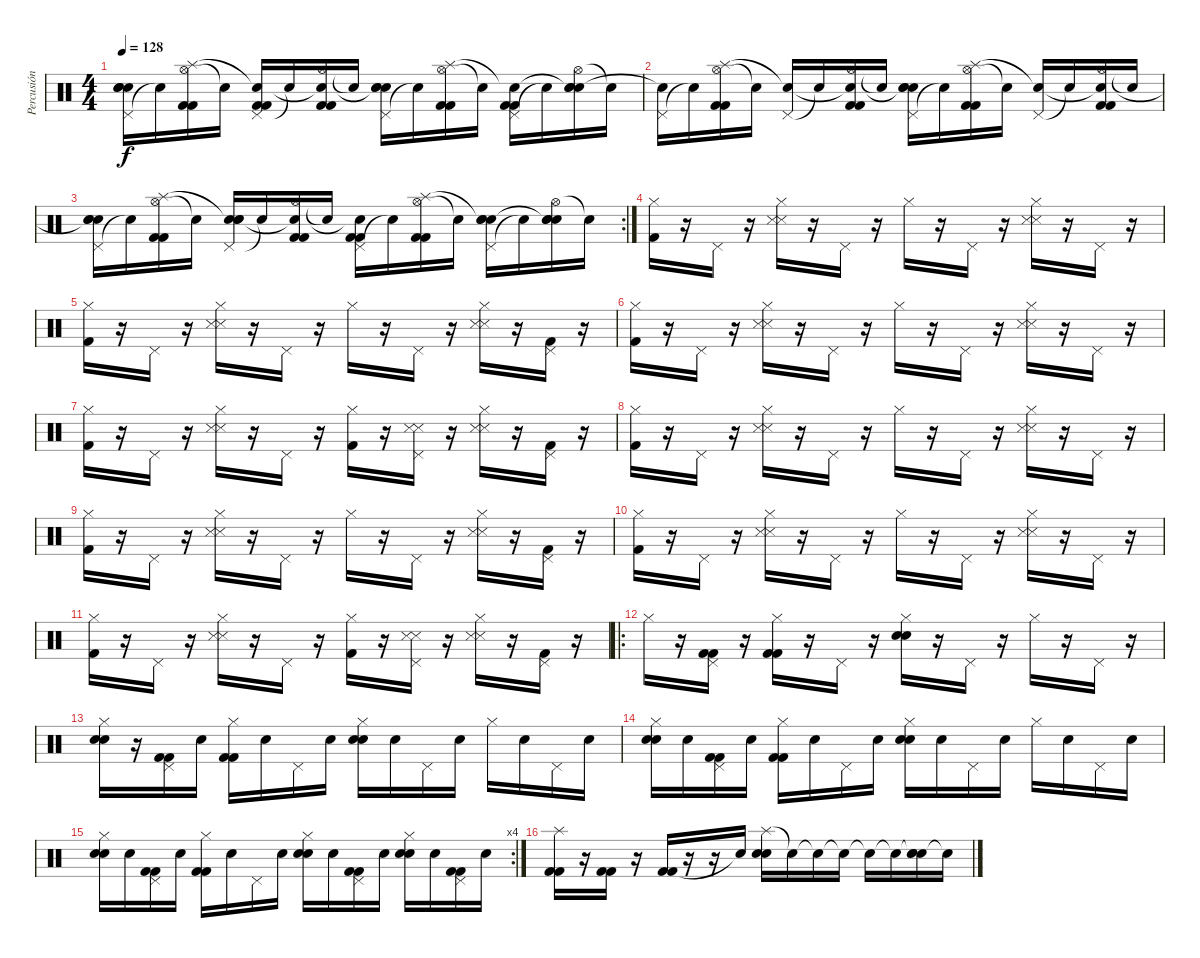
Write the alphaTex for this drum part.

\track ("Percusión" "Percusión") {instrument percussion}
\staff {score}
\articulation defaults
\ts (4 4)
\tempo 128
\clef neutral
\ks c
("Pedal Hi-Hat (hit)" "Snare (hit)"{t} "Electric Snare (hit)" "Electric Snare (hit)").16{dy f} "Snare (hit)"{t}.16 ("Hi-Hat (open)" "Splash (hit)" "Kick (hit) 2" "Kick (hit) 2").16 "Snare (hit)"{t}.16 ("Pedal Hi-Hat (hit)" "Snare (hit)"{t} "Kick (hit) 2" "Kick (hit) 2").16 "Snare (hit)"{t}.16 ("Hi-Hat (open)" "Snare (hit)"{t} "Kick (hit) 2" "Kick (hit) 2").16 "Snare (hit)"{t}.16 ("Pedal Hi-Hat (hit)" "Snare (hit)"{t} "Electric Snare (hit)" "Electric Snare (hit)").16 "Snare (hit)"{t}.16 ("Hi-Hat (open)" "Splash (hit)" "Kick (hit) 2" "Kick (hit) 2").16 "Snare (hit)"{t}.16 ("Pedal Hi-Hat (hit)" "Snare (hit)"{t} "Kick (hit) 2" "Kick (hit) 2").16 "Snare (hit)"{t}.16 ("Hi-Hat (open)" "Snare (hit)"{t} "Electric Snare (hit)" "Electric Snare (hit)").16 "Snare (hit)"{t}.16 |
("Pedal Hi-Hat (hit)" "Snare (hit)"{t}).16 "Snare (hit)"{t}.16 ("Hi-Hat (open)" "Splash (hit)" "Kick (hit) 2" "Kick (hit) 2").16 "Snare (hit)"{t}.16 ("Pedal Hi-Hat (hit)" "Snare (hit)"{t}).16 "Snare (hit)"{t}.16 ("Hi-Hat (open)" "Snare (hit)"{t} "Kick (hit) 2" "Kick (hit) 2").16 "Snare (hit)"{t}.16 ("Pedal Hi-Hat (hit)" "Snare (hit)"{t} "Electric Snare (hit)" "Electric Snare (hit)").16 "Snare (hit)"{t}.16 ("Hi-Hat (open)" "Splash (hit)" "Kick (hit) 2" "Kick (hit) 2").16 "Snare (hit)"{t}.16 ("Pedal Hi-Hat (hit)" "Snare (hit)"{t}).16 "Snare (hit)"{t}.16 ("Hi-Hat (open)" "Snare (hit)"{t} "Kick (hit) 2" "Kick (hit) 2").16 "Snare (hit)"{t}.16 |
\rc 2
("Pedal Hi-Hat (hit)" "Electric Snare (hit)"{t} "Electric Snare (hit)" "Electric Snare (hit)").16 "Snare (hit)"{t}.16 ("Hi-Hat (open)" "Splash (hit)" "Kick (hit) 2" "Kick (hit) 2").16 "Snare (hit)"{t}.16 ("Pedal Hi-Hat (hit)" "Snare (hit)"{t} "Electric Snare (hit)" "Electric Snare (hit)").16 "Snare (hit)"{t}.16 ("Hi-Hat (open)" "Snare (hit)"{t} "Kick (hit) 2" "Kick (hit) 2").16 "Snare (hit)"{t}.16 ("Pedal Hi-Hat (hit)" "Snare (hit)"{t} "Kick (hit) 2" "Kick (hit) 2").16 "Snare (hit)"{t}.16 ("Hi-Hat (open)" "Splash (hit)" "Kick (hit) 2" "Kick (hit) 2").16 "Snare (hit)"{t}.16 ("Pedal Hi-Hat (hit)" "Snare (hit)"{t} "Electric Snare (hit)" "Electric Snare (hit)").16 "Snare (hit)"{t}.16 ("Hi-Hat (open)" "Snare (hit)"{t} "Electric Snare (hit)" "Electric Snare (hit)").16 "Snare (hit)"{t}.16 |
("Hi-Hat (closed)" "Kick (hit) 2").16 r.16 "Pedal Hi-Hat (hit)".16 r.16 ("Hi-Hat (closed)" "Snare (side stick) 3" "Snare (side stick) 3").16 r.16 "Pedal Hi-Hat (hit)".16 r.16 "Hi-Hat (closed)".16 r.16 "Pedal Hi-Hat (hit)".16 r.16 ("Hi-Hat (closed)" "Snare (side stick) 3" "Snare (side stick) 3").16 r.16 "Pedal Hi-Hat (hit)".16 r.16 |
("Hi-Hat (closed)" "Kick (hit) 2").16 r.16 "Pedal Hi-Hat (hit)".16 r.16 ("Hi-Hat (closed)" "Snare (side stick) 3" "Snare (side stick) 3").16 r.16 "Pedal Hi-Hat (hit)".16 r.16 "Hi-Hat (closed)".16 r.16 "Pedal Hi-Hat (hit)".16 r.16 ("Hi-Hat (closed)" "Snare (side stick) 3" "Snare (side stick) 3").16 r.16 ("Pedal Hi-Hat (hit)" "Kick (hit) 2").16 r.16 |
("Hi-Hat (closed)" "Kick (hit) 2").16 r.16 "Pedal Hi-Hat (hit)".16 r.16 ("Hi-Hat (closed)" "Snare (side stick) 3" "Snare (side stick) 3").16 r.16 "Pedal Hi-Hat (hit)".16 r.16 "Hi-Hat (closed)".16 r.16 "Pedal Hi-Hat (hit)".16 r.16 ("Hi-Hat (closed)" "Snare (side stick) 3" "Snare (side stick) 3").16 r.16 "Pedal Hi-Hat (hit)".16 r.16 |
("Hi-Hat (closed)" "Kick (hit) 2").16 r.16 "Pedal Hi-Hat (hit)".16 r.16 ("Hi-Hat (closed)" "Snare (side stick) 3" "Snare (side stick) 3").16 r.16 "Pedal Hi-Hat (hit)".16 r.16 ("Hi-Hat (closed)" "Kick (hit) 2").16 r.16 ("Pedal Hi-Hat (hit)" "Snare (side stick) 3" "Snare (side stick) 3").16 r.16 ("Hi-Hat (closed)" "Snare (side stick) 3" "Snare (side stick) 3").16 r.16 ("Pedal Hi-Hat (hit)" "Kick (hit) 2").16 r.16 |
("Hi-Hat (closed)" "Kick (hit) 2").16 r.16 "Pedal Hi-Hat (hit)".16 r.16 ("Hi-Hat (closed)" "Snare (side stick) 3" "Snare (side stick) 3").16 r.16 "Pedal Hi-Hat (hit)".16 r.16 "Hi-Hat (closed)".16 r.16 "Pedal Hi-Hat (hit)".16 r.16 ("Hi-Hat (closed)" "Snare (side stick) 3" "Snare (side stick) 3").16 r.16 "Pedal Hi-Hat (hit)".16 r.16 |
("Hi-Hat (closed)" "Kick (hit) 2").16 r.16 "Pedal Hi-Hat (hit)".16 r.16 ("Hi-Hat (closed)" "Snare (side stick) 3" "Snare (side stick) 3").16 r.16 "Pedal Hi-Hat (hit)".16 r.16 "Hi-Hat (closed)".16 r.16 "Pedal Hi-Hat (hit)".16 r.16 ("Hi-Hat (closed)" "Snare (side stick) 3" "Snare (side stick) 3").16 r.16 ("Pedal Hi-Hat (hit)" "Kick (hit) 2").16 r.16 |
("Hi-Hat (closed)" "Kick (hit) 2").16 r.16 "Pedal Hi-Hat (hit)".16 r.16 ("Hi-Hat (closed)" "Snare (side stick) 3" "Snare (side stick) 3").16 r.16 "Pedal Hi-Hat (hit)".16 r.16 "Hi-Hat (closed)".16 r.16 "Pedal Hi-Hat (hit)".16 r.16 ("Hi-Hat (closed)" "Snare (side stick) 3" "Snare (side stick) 3").16 r.16 "Pedal Hi-Hat (hit)".16 r.16 |
("Hi-Hat (closed)" "Kick (hit) 2").16 r.16 "Pedal Hi-Hat (hit)".16 r.16 ("Hi-Hat (closed)" "Snare (side stick) 3" "Snare (side stick) 3").16 r.16 "Pedal Hi-Hat (hit)".16 r.16 ("Hi-Hat (closed)" "Kick (hit) 2").16 r.16 ("Pedal Hi-Hat (hit)" "Snare (side stick) 3" "Snare (side stick) 3").16 r.16 ("Hi-Hat (closed)" "Snare (side stick) 3" "Snare (side stick) 3").16 r.16 ("Pedal Hi-Hat (hit)" "Kick (hit) 2").16 r.16 |
\ro "Hi-Hat (closed)".16
r.16 ("Pedal Hi-Hat (hit)" "Kick (hit) 2" "Kick (hit) 2").16 r.16 ("Hi-Hat (closed)" "Kick (hit) 2" "Kick (hit) 2").16 r.16 "Pedal Hi-Hat (hit)".16 r.16 ("Hi-Hat (closed)" "Electric Snare (hit)" "Electric Snare (hit)").16 r.16 "Pedal Hi-Hat (hit)".16 r.16 "Hi-Hat (closed)".16 r.16 "Pedal Hi-Hat (hit)".16 r.16 |
("Hi-Hat (closed)" "Electric Snare (hit)" "Electric Snare (hit)").16 r.16 ("Pedal Hi-Hat (hit)" "Kick (hit) 2" "Kick (hit) 2").16 "Snare (hit)".16 ("Hi-Hat (closed)" "Kick (hit) 2" "Kick (hit) 2").16 "Snare (hit)".16 "Pedal Hi-Hat (hit)".16 "Snare (hit)".16 ("Hi-Hat (closed)" "Electric Snare (hit)" "Electric Snare (hit)").16 "Snare (hit)".16 "Pedal Hi-Hat (hit)".16 "Snare (hit)".16 "Hi-Hat (closed)".16 "Snare (hit)".16 "Pedal Hi-Hat (hit)".16 "Snare (hit)".16 |
("Hi-Hat (closed)" "Electric Snare (hit)" "Electric Snare (hit)").16 "Snare (hit)".16 ("Pedal Hi-Hat (hit)" "Kick (hit) 2" "Kick (hit) 2").16 "Snare (hit)".16 ("Hi-Hat (closed)" "Kick (hit) 2" "Kick (hit) 2").16 "Snare (hit)".16 "Pedal Hi-Hat (hit)".16 "Snare (hit)".16 ("Hi-Hat (closed)" "Electric Snare (hit)" "Electric Snare (hit)").16 "Snare (hit)".16 "Pedal Hi-Hat (hit)".16 "Snare (hit)".16 "Hi-Hat (closed)".16 "Snare (hit)".16 "Pedal Hi-Hat (hit)".16 "Snare (hit)".16 |
\rc 4
("Hi-Hat (closed)" "Electric Snare (hit)" "Electric Snare (hit)").16 "Snare (hit)".16 ("Pedal Hi-Hat (hit)" "Kick (hit) 2" "Kick (hit) 2").16 "Snare (hit)".16 ("Hi-Hat (closed)" "Kick (hit) 2" "Kick (hit) 2").16 "Snare (hit)".16 "Pedal Hi-Hat (hit)".16 "Snare (hit)".16 ("Hi-Hat (closed)" "Electric Snare (hit)" "Electric Snare (hit)").16 "Snare (hit)".16 ("Pedal Hi-Hat (hit)" "Kick (hit) 2" "Kick (hit) 2").16 "Snare (hit)".16 ("Hi-Hat (closed)" "Electric Snare (hit)" "Electric Snare (hit)").16 "Snare (hit)".16 ("Pedal Hi-Hat (hit)" "Kick (hit) 2" "Kick (hit) 2").16 "Snare (hit)".16 |
("Splash (hit)" "Kick (hit) 2" "Kick (hit) 2").16 r.16 ("Kick (hit) 2" "Kick (hit) 2").16 r.16 ("Kick (hit) 2" "Kick (hit) 2").16 r.16 r.16 "Snare (hit)"{t}.16 ("Splash (hit)" "Electric Snare (hit)" "Electric Snare (hit)").16 "Snare (hit)"{t}.16 "Snare (hit)"{t}.16 "Snare (hit)"{t}.16 "Snare (hit)"{t}.16 "Snare (hit)"{t}.16 ("Snare (hit)"{t} "Electric Snare (hit)" "Electric Snare (hit)").16 "Snare (hit)"{t}.16
